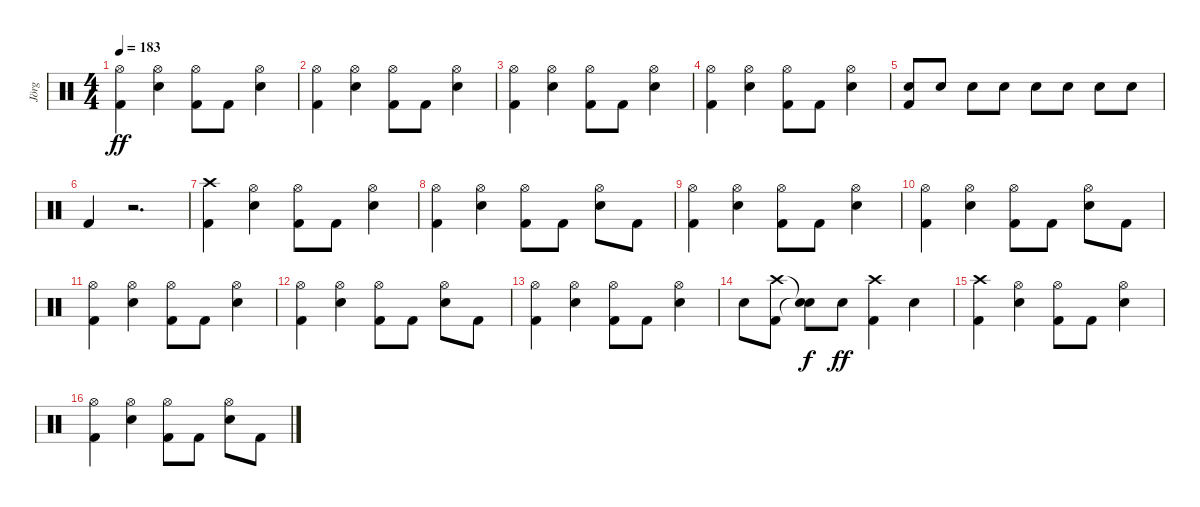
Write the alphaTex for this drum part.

\track ("Jörg" "Jörg") {instrument percussion}
\staff {score}
\articulation defaults
\ts (4 4)
\tempo 183
\clef neutral
\ks c
("Kick (hit) 2" "Hi-Hat (open)").4{dy ff} ("Snare (hit) 2" "Hi-Hat (open)").4 ("Kick (hit) 2" "Hi-Hat (open)").8 "Kick (hit) 2".8 ("Snare (hit) 2" "Hi-Hat (open)").4 |
("Kick (hit) 2" "Hi-Hat (open)").4 ("Snare (hit) 2" "Hi-Hat (open)").4 ("Kick (hit) 2" "Hi-Hat (open)").8 "Kick (hit) 2".8 ("Snare (hit) 2" "Hi-Hat (open)").4 |
("Kick (hit) 2" "Hi-Hat (open)").4 ("Snare (hit) 2" "Hi-Hat (open)").4 ("Kick (hit) 2" "Hi-Hat (open)").8 "Kick (hit) 2".8 ("Snare (hit) 2" "Hi-Hat (open)").4 |
("Kick (hit) 2" "Hi-Hat (open)").4 ("Snare (hit) 2" "Hi-Hat (open)").4 ("Kick (hit) 2" "Hi-Hat (open)").8 "Kick (hit) 2".8 ("Snare (hit) 2" "Hi-Hat (open)").4 |
("Snare (hit) 2" "Kick (hit) 2").8 "Snare (hit) 2".8 "Snare (hit) 2".8 "Snare (hit) 2".8 "Snare (hit) 2".8 "Snare (hit) 2".8 "Snare (hit) 2".8 "Snare (hit) 2".8 |
"Kick (hit) 2".4 r.2{d} |
("Kick (hit) 2" "Crash high (hit)").4 ("Snare (hit) 2" "Hi-Hat (open)").4 ("Kick (hit) 2" "Hi-Hat (open)").8 "Kick (hit) 2".8 ("Snare (hit) 2" "Hi-Hat (open)").4 |
("Kick (hit) 2" "Hi-Hat (open)").4 ("Snare (hit) 2" "Hi-Hat (open)").4 ("Kick (hit) 2" "Hi-Hat (open)").8 "Kick (hit) 2".8 ("Snare (hit) 2" "Hi-Hat (open)").8 "Kick (hit) 2".8 |
("Kick (hit) 2" "Hi-Hat (open)").4 ("Snare (hit) 2" "Hi-Hat (open)").4 ("Kick (hit) 2" "Hi-Hat (open)").8 "Kick (hit) 2".8 ("Snare (hit) 2" "Hi-Hat (open)").4 |
("Kick (hit) 2" "Hi-Hat (open)").4 ("Snare (hit) 2" "Hi-Hat (open)").4 ("Kick (hit) 2" "Hi-Hat (open)").8 "Kick (hit) 2".8 ("Snare (hit) 2" "Hi-Hat (open)").8 "Kick (hit) 2".8 |
("Kick (hit) 2" "Hi-Hat (open)").4 ("Snare (hit) 2" "Hi-Hat (open)").4 ("Kick (hit) 2" "Hi-Hat (open)").8 "Kick (hit) 2".8 ("Snare (hit) 2" "Hi-Hat (open)").4 |
("Kick (hit) 2" "Hi-Hat (open)").4 ("Snare (hit) 2" "Hi-Hat (open)").4 ("Kick (hit) 2" "Hi-Hat (open)").8 "Kick (hit) 2".8 ("Snare (hit) 2" "Hi-Hat (open)").8 "Kick (hit) 2".8 |
("Kick (hit) 2" "Hi-Hat (open)").4 ("Snare (hit) 2" "Hi-Hat (open)").4 ("Kick (hit) 2" "Hi-Hat (open)").8 "Kick (hit) 2".8 ("Snare (hit) 2" "Hi-Hat (open)").4 |
"Snare (hit) 2".8 ("Kick (hit) 2" "Crash high (hit)").8 ("Snare (hit)"{t} "Snare (hit)"{t}).8{dy f} "Snare (hit) 2".8{dy ff} ("Kick (hit) 2" "Crash high (hit)").4 "Snare (hit) 2".4 |
("Kick (hit) 2" "Crash high (hit)").4 ("Snare (hit) 2" "Hi-Hat (open)").4 ("Kick (hit) 2" "Hi-Hat (open)").8 "Kick (hit) 2".8 ("Snare (hit) 2" "Hi-Hat (open)").4 |
("Kick (hit) 2" "Hi-Hat (open)").4 ("Snare (hit) 2" "Hi-Hat (open)").4 ("Kick (hit) 2" "Hi-Hat (open)").8 "Kick (hit) 2".8 ("Snare (hit) 2" "Hi-Hat (open)").8 "Kick (hit) 2".8
